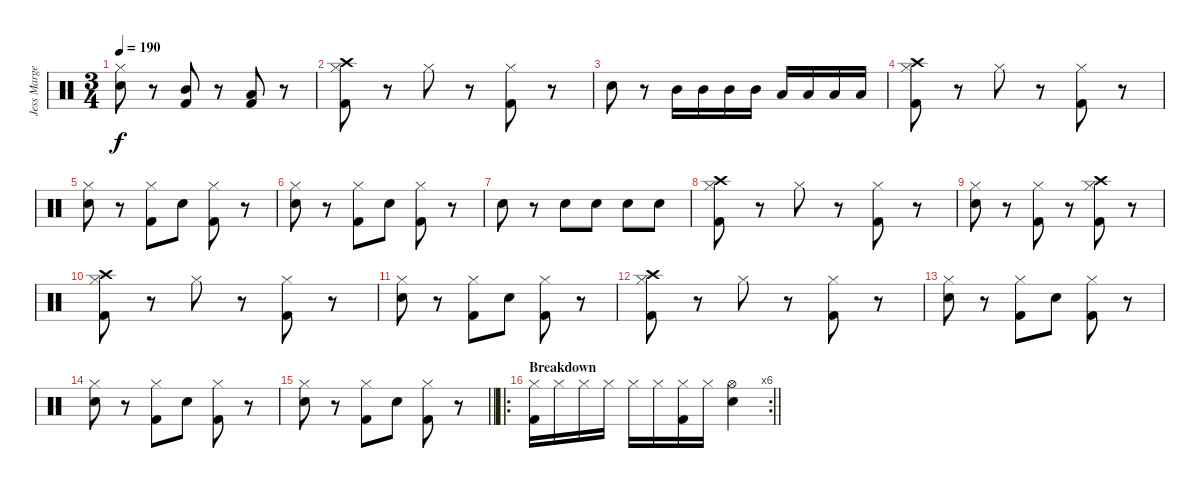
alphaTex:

\track ("Jess Margera" "Jess Marge") {instrument percussion}
\staff {score}
\articulation defaults
\ts (3 4)
\tempo 190
\clef neutral
\ks c
("Hi-Hat (closed)" "Electric Snare (hit)").8{dy f} r.8 ("Mid Tom (hit)" "Kick (hit) 2").8 r.8 ("Low Tom (hit)" "Kick (hit) 2").8 r.8 |
("Crash high (hit)" "Hi-Hat (closed)" "Kick (hit) 2").8 r.8 "Hi-Hat (closed)".8 r.8 ("Hi-Hat (closed)" "Kick (hit) 2").8 r.8 |
"Electric Snare (hit)".8 r.8 "Mid Tom (hit)".16 "Mid Tom (hit)".16 "Mid Tom (hit)".16 "Mid Tom (hit)".16 "Low Tom (hit)".16 "Low Tom (hit)".16 "Low Tom (hit)".16 "Low Tom (hit)".16 |
("Crash high (hit)" "Hi-Hat (closed)" "Kick (hit) 2").8 r.8 "Hi-Hat (closed)".8 r.8 ("Hi-Hat (closed)" "Kick (hit) 2").8 r.8 |
("Hi-Hat (closed)" "Electric Snare (hit)").8 r.8 ("Hi-Hat (closed)" "Kick (hit) 2").8 "Electric Snare (hit)".8 ("Hi-Hat (closed)" "Kick (hit) 2").8 r.8 |
("Hi-Hat (closed)" "Electric Snare (hit)").8 r.8 ("Hi-Hat (closed)" "Kick (hit) 2").8 "Electric Snare (hit)".8 ("Hi-Hat (closed)" "Kick (hit) 2").8 r.8 |
"Electric Snare (hit)".8 r.8 "Electric Snare (hit)".8 "Electric Snare (hit)".8 "Electric Snare (hit)".8 "Electric Snare (hit)".8 |
("Crash high (hit)" "Hi-Hat (closed)" "Kick (hit) 2").8 r.8 "Hi-Hat (closed)".8 r.8 ("Hi-Hat (closed)" "Kick (hit) 2").8 r.8 |
("Hi-Hat (closed)" "Electric Snare (hit)").8 r.8 ("Hi-Hat (closed)" "Kick (hit) 2").8 r.8 ("Crash high (hit)" "Hi-Hat (closed)" "Kick (hit) 2").8 r.8 |
("Crash high (hit)" "Hi-Hat (closed)" "Kick (hit) 2").8 r.8 "Hi-Hat (closed)".8 r.8 ("Hi-Hat (closed)" "Kick (hit) 2").8 r.8 |
("Hi-Hat (closed)" "Electric Snare (hit)").8 r.8 ("Hi-Hat (closed)" "Kick (hit) 2").8 "Electric Snare (hit)".8 ("Hi-Hat (closed)" "Kick (hit) 2").8 r.8 |
("Crash high (hit)" "Hi-Hat (closed)" "Kick (hit) 2").8 r.8 "Hi-Hat (closed)".8 r.8 ("Hi-Hat (closed)" "Kick (hit) 2").8 r.8 |
("Hi-Hat (closed)" "Electric Snare (hit)").8 r.8 ("Hi-Hat (closed)" "Kick (hit) 2").8 "Electric Snare (hit)".8 ("Hi-Hat (closed)" "Kick (hit) 2").8 r.8 |
("Hi-Hat (closed)" "Electric Snare (hit)").8 r.8 ("Hi-Hat (closed)" "Kick (hit) 2").8 "Electric Snare (hit)".8 ("Hi-Hat (closed)" "Kick (hit) 2").8 r.8 |
\barLineRight lightlight
("Hi-Hat (closed)" "Electric Snare (hit)").8 r.8 ("Hi-Hat (closed)" "Kick (hit) 2").8 "Electric Snare (hit)".8 ("Hi-Hat (closed)" "Kick (hit) 2").8 r.8 |
\ro
\rc 6
\section ("" "Breakdown")
\barLineRight lightlight
("Hi-Hat (closed)" "Kick (hit) 2").16 "Hi-Hat (closed)".16 "Hi-Hat (closed)".16 "Hi-Hat (closed)".16 "Hi-Hat (closed)".16 "Hi-Hat (closed)".16 ("Hi-Hat (closed)" "Kick (hit) 2").16 "Hi-Hat (closed)".16 ("Hi-Hat (open)" "Electric Snare (hit)").4
